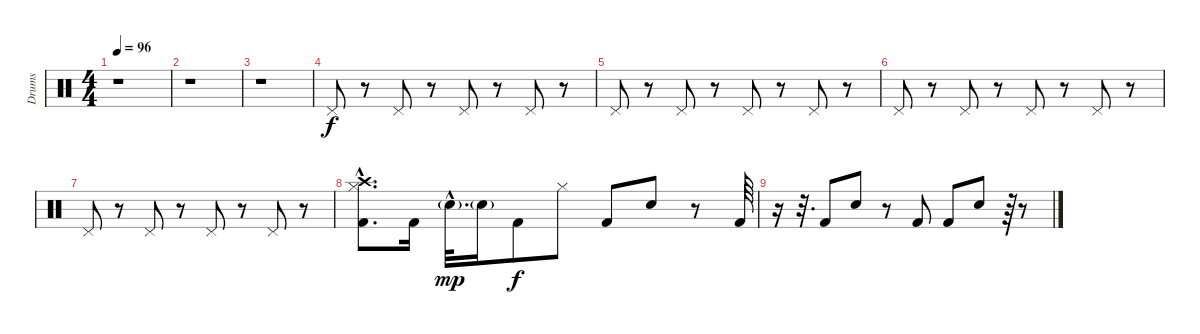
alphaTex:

\track ("Drums" "Drums") {instrument percussion}
\staff {score}
\articulation defaults
\ts (4 4)
\tempo 96
\clef neutral
\ks c
r.1{dy f} |
r.1 |
r.1 |
"Pedal Hi-Hat (hit)".8 r.8 "Pedal Hi-Hat (hit)".8 r.8 "Pedal Hi-Hat (hit)".8 r.8 "Pedal Hi-Hat (hit)".8 r.8 |
"Pedal Hi-Hat (hit)".8 r.8 "Pedal Hi-Hat (hit)".8 r.8 "Pedal Hi-Hat (hit)".8 r.8 "Pedal Hi-Hat (hit)".8 r.8 |
"Pedal Hi-Hat (hit)".8 r.8 "Pedal Hi-Hat (hit)".8 r.8 "Pedal Hi-Hat (hit)".8 r.8 "Pedal Hi-Hat (hit)".8 r.8 |
"Pedal Hi-Hat (hit)".8 r.8 "Pedal Hi-Hat (hit)".8 r.8 "Pedal Hi-Hat (hit)".8 r.8 "Pedal Hi-Hat (hit)".8 r.8 |
("Kick (hit) 2"{hac} "Crash high (hit)"{hac} "Hi-Hat (closed)"{hac}).8{d} "Kick (hit) 2".16 "Snare (hit) 2"{g hac}.32{d dy mp} "Snare (hit) 2"{g}.16 "Kick (hit) 2".8{dy f} "Hi-Hat (closed)".8 "Kick (hit) 2".8 "Snare (hit) 2".8 r.8 "Kick (hit) 2".64 |
r.16 r.32{d} "Kick (hit) 2".8 "Snare (hit) 2".8 r.8 "Kick (hit) 2".8 "Kick (hit) 2".8 "Snare (hit) 2".8 r.64 r.8
